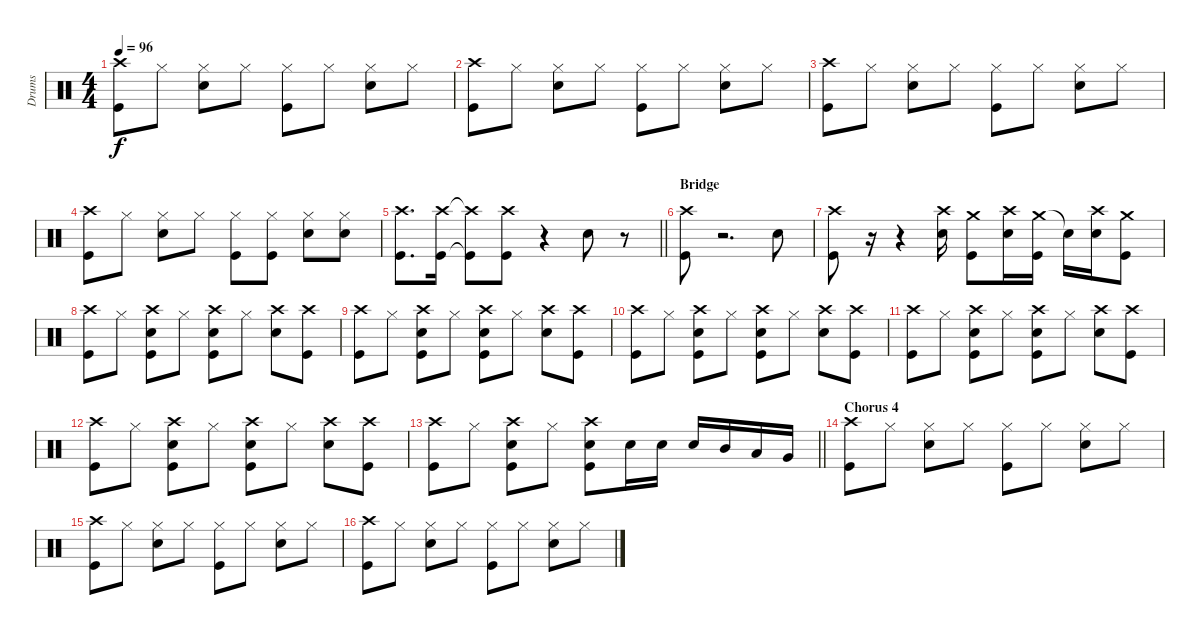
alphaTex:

\track ("Drums" "Drums") {instrument percussion}
\staff {score}
\articulation defaults
\ts (4 4)
\tempo 96
\clef neutral
\ks c
("Crash high (hit)" "Kick (hit)").8{dy f} "Hi-Hat (closed)".8 ("Hi-Hat (closed)" "Electric Snare (hit)").8 "Hi-Hat (closed)".8 ("Hi-Hat (closed)" "Kick (hit)").8 "Hi-Hat (closed)".8 ("Hi-Hat (closed)" "Electric Snare (hit)").8 "Hi-Hat (closed)".8 |
("Crash high (hit)" "Kick (hit)").8 "Hi-Hat (closed)".8 ("Hi-Hat (closed)" "Electric Snare (hit)").8 "Hi-Hat (closed)".8 ("Hi-Hat (closed)" "Kick (hit)").8 "Hi-Hat (closed)".8 ("Hi-Hat (closed)" "Electric Snare (hit)").8 "Hi-Hat (closed)".8 |
("Crash high (hit)" "Kick (hit)").8 "Hi-Hat (closed)".8 ("Hi-Hat (closed)" "Electric Snare (hit)").8 "Hi-Hat (closed)".8 ("Hi-Hat (closed)" "Kick (hit)").8 "Hi-Hat (closed)".8 ("Hi-Hat (closed)" "Electric Snare (hit)").8 "Hi-Hat (closed)".8 |
("Crash high (hit)" "Kick (hit)").8 "Hi-Hat (closed)".8 ("Hi-Hat (closed)" "Electric Snare (hit)").8 "Hi-Hat (closed)".8 ("Hi-Hat (closed)" "Kick (hit)").8 ("Hi-Hat (closed)" "Kick (hit)").8 ("Hi-Hat (closed)" "Electric Snare (hit)").8 ("Hi-Hat (closed)" "Electric Snare (hit)").8 |
\barLineRight lightlight
("Crash high (hit)" "Kick (hit)").8{d} ("Crash high (hit)" "Kick (hit)").16 ("Crash high (hit)"{t} "Kick (hit)"{t}).8 ("Crash high (hit)" "Kick (hit)").8 r.4 "Electric Snare (hit)".8 r.8 |
\section ("" "Bridge")
("Crash high (hit)" "Kick (hit)").8 r.2{d} "Electric Snare (hit)".8 |
("Crash high (hit)" "Kick (hit)").8 r.16 r.4 ("Crash high (hit)" "Electric Snare (hit)").16 ("Crash medium (hit)" "Kick (hit)").8 ("Crash high (hit)" "Electric Snare (hit)").16 ("Crash medium (hit)" "Kick (hit)").16 "Snare (hit)"{t}.16 ("Crash high (hit)" "Electric Snare (hit)").16 ("Crash medium (hit)" "Kick (hit)").8 |
("Crash high (hit)" "Kick (hit)").8 "Hi-Hat (closed)".8 ("Crash high (hit)" "Electric Snare (hit)" "Kick (hit)").8 "Hi-Hat (closed)".8 ("Crash high (hit)" "Electric Snare (hit)" "Kick (hit)").8 "Hi-Hat (closed)".8 ("Crash high (hit)" "Electric Snare (hit)").8 ("Crash high (hit)" "Kick (hit)").8 |
("Crash high (hit)" "Kick (hit)").8 "Hi-Hat (closed)".8 ("Crash high (hit)" "Electric Snare (hit)" "Kick (hit)").8 "Hi-Hat (closed)".8 ("Crash high (hit)" "Electric Snare (hit)" "Kick (hit)").8 "Hi-Hat (closed)".8 ("Crash high (hit)" "Electric Snare (hit)").8 ("Crash high (hit)" "Kick (hit)").8 |
("Crash high (hit)" "Kick (hit)").8 "Hi-Hat (closed)".8 ("Crash high (hit)" "Electric Snare (hit)" "Kick (hit)").8 "Hi-Hat (closed)".8 ("Crash high (hit)" "Electric Snare (hit)" "Kick (hit)").8 "Hi-Hat (closed)".8 ("Crash high (hit)" "Electric Snare (hit)").8 ("Crash high (hit)" "Kick (hit)").8 |
("Crash high (hit)" "Kick (hit)").8 "Hi-Hat (closed)".8 ("Crash high (hit)" "Electric Snare (hit)" "Kick (hit)").8 "Hi-Hat (closed)".8 ("Crash high (hit)" "Electric Snare (hit)" "Kick (hit)").8 "Hi-Hat (closed)".8 ("Crash high (hit)" "Electric Snare (hit)").8 ("Crash high (hit)" "Kick (hit)").8 |
("Crash high (hit)" "Kick (hit)").8 "Hi-Hat (closed)".8 ("Crash high (hit)" "Electric Snare (hit)" "Kick (hit)").8 "Hi-Hat (closed)".8 ("Crash high (hit)" "Electric Snare (hit)" "Kick (hit)").8 "Hi-Hat (closed)".8 ("Crash high (hit)" "Electric Snare (hit)").8 ("Crash high (hit)" "Kick (hit)").8 |
\barLineRight lightlight
("Crash high (hit)" "Kick (hit)").8 "Hi-Hat (closed)".8 ("Crash high (hit)" "Electric Snare (hit)" "Kick (hit)").8 "Hi-Hat (closed)".8 ("Crash high (hit)" "Electric Snare (hit)" "Kick (hit)").8 "Electric Snare (hit)".16 "Electric Snare (hit)".16 "Electric Snare (hit)".16 "Mid Tom (hit)".16 "Low Tom (hit)".16 "Very Low Tom (hit)".16 |
\section ("" "Chorus 4")
("Crash high (hit)" "Kick (hit)").8 "Hi-Hat (closed)".8 ("Hi-Hat (closed)" "Electric Snare (hit)").8 "Hi-Hat (closed)".8 ("Hi-Hat (closed)" "Kick (hit)").8 "Hi-Hat (closed)".8 ("Hi-Hat (closed)" "Electric Snare (hit)").8 "Hi-Hat (closed)".8 |
("Crash high (hit)" "Kick (hit)").8 "Hi-Hat (closed)".8 ("Hi-Hat (closed)" "Electric Snare (hit)").8 "Hi-Hat (closed)".8 ("Hi-Hat (closed)" "Kick (hit)").8 "Hi-Hat (closed)".8 ("Hi-Hat (closed)" "Electric Snare (hit)").8 "Hi-Hat (closed)".8 |
("Crash high (hit)" "Kick (hit)").8 "Hi-Hat (closed)".8 ("Hi-Hat (closed)" "Electric Snare (hit)").8 "Hi-Hat (closed)".8 ("Hi-Hat (closed)" "Kick (hit)").8 "Hi-Hat (closed)".8 ("Hi-Hat (closed)" "Electric Snare (hit)").8 "Hi-Hat (closed)".8
